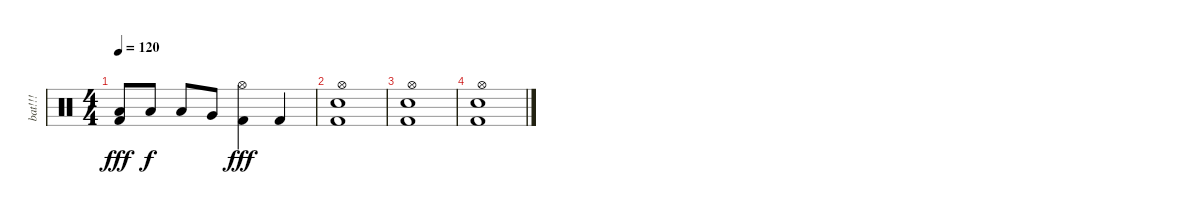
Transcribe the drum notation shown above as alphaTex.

\track ("bat!!!" "bat!!!") {instrument percussion}
\staff {score}
\articulation defaults
\ts (4 4)
\tempo 120
\clef neutral
\ks c
("Low Floor Tom (hit)" "Kick (hit) 2").8{dy fff} "Low Floor Tom (hit)".8{dy f} "Low Floor Tom (hit)".8 "Very Low Tom (hit)".8 ("Hi-Hat (open)" "Kick (hit) 2").4{dy fff} "Kick (hit) 2".4 |
("Hi-Hat (open)" "Snare (hit) 2" "Kick (hit) 2").1 |
("Hi-Hat (open)" "Snare (hit) 2" "Kick (hit) 2").1 |
("Hi-Hat (open)" "Snare (hit) 2" "Kick (hit) 2").1
